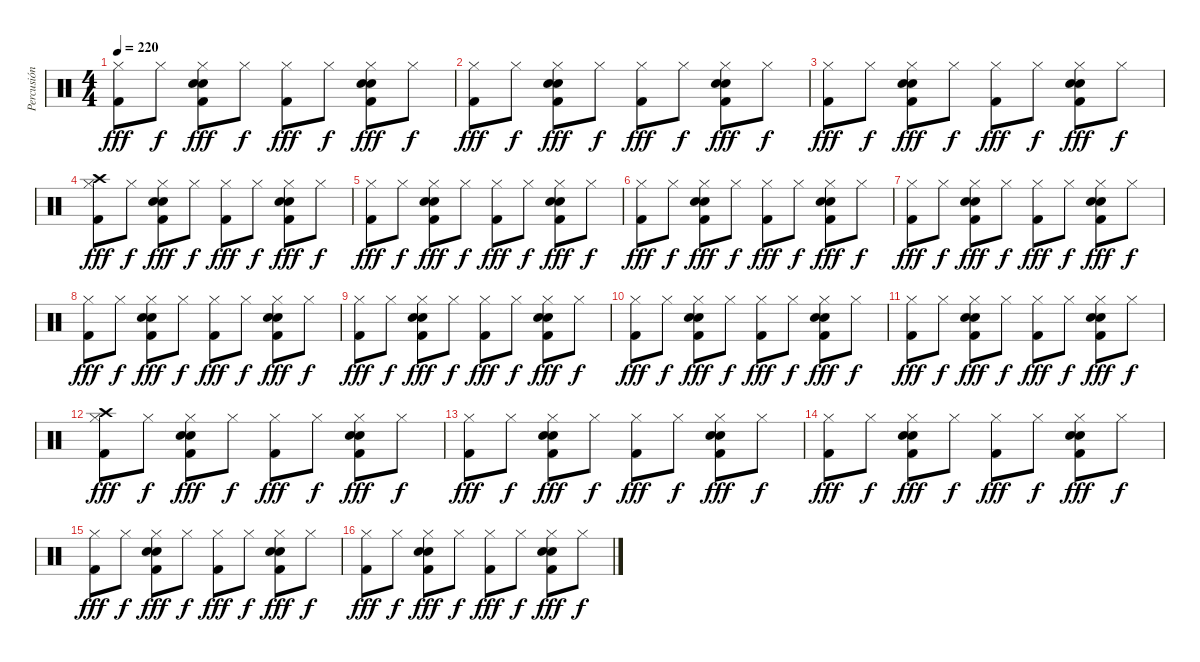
\track ("Percusión" "Percusión") {instrument percussion}
\staff {score}
\articulation defaults
\ts (4 4)
\tempo 220
\clef neutral
\ks c
("Hi-Hat (closed)" "Kick (hit) 2").8{dy fff} "Hi-Hat (closed)".8{dy f} ("Hi-Hat (closed)" "Electric Snare (hit)" "Snare (hit) 2" "Kick (hit) 2").8{dy fff} "Hi-Hat (closed)".8{dy f} ("Hi-Hat (closed)" "Kick (hit) 2").8{dy fff} "Hi-Hat (closed)".8{dy f} ("Hi-Hat (closed)" "Electric Snare (hit)" "Snare (hit) 2" "Kick (hit) 2").8{dy fff} "Hi-Hat (closed)".8{dy f} |
("Hi-Hat (closed)" "Kick (hit) 2").8{dy fff} "Hi-Hat (closed)".8{dy f} ("Hi-Hat (closed)" "Electric Snare (hit)" "Snare (hit) 2" "Kick (hit) 2").8{dy fff} "Hi-Hat (closed)".8{dy f} ("Hi-Hat (closed)" "Kick (hit) 2").8{dy fff} "Hi-Hat (closed)".8{dy f} ("Hi-Hat (closed)" "Electric Snare (hit)" "Snare (hit) 2" "Kick (hit) 2").8{dy fff} "Hi-Hat (closed)".8{dy f} |
("Hi-Hat (closed)" "Kick (hit) 2").8{dy fff} "Hi-Hat (closed)".8{dy f} ("Hi-Hat (closed)" "Electric Snare (hit)" "Snare (hit) 2" "Kick (hit) 2").8{dy fff} "Hi-Hat (closed)".8{dy f} ("Hi-Hat (closed)" "Kick (hit) 2").8{dy fff} "Hi-Hat (closed)".8{dy f} ("Hi-Hat (closed)" "Electric Snare (hit)" "Snare (hit) 2" "Kick (hit) 2").8{dy fff} "Hi-Hat (closed)".8{dy f} |
("Crash high (hit)" "Hi-Hat (closed)" "Kick (hit) 2").8{dy fff} "Hi-Hat (closed)".8{dy f} ("Hi-Hat (closed)" "Electric Snare (hit)" "Snare (hit) 2" "Kick (hit) 2").8{dy fff} "Hi-Hat (closed)".8{dy f} ("Hi-Hat (closed)" "Kick (hit) 2").8{dy fff} "Hi-Hat (closed)".8{dy f} ("Hi-Hat (closed)" "Electric Snare (hit)" "Snare (hit) 2" "Kick (hit) 2").8{dy fff} "Hi-Hat (closed)".8{dy f} |
("Hi-Hat (closed)" "Kick (hit) 2").8{dy fff} "Hi-Hat (closed)".8{dy f} ("Hi-Hat (closed)" "Electric Snare (hit)" "Snare (hit) 2" "Kick (hit) 2").8{dy fff} "Hi-Hat (closed)".8{dy f} ("Hi-Hat (closed)" "Kick (hit) 2").8{dy fff} "Hi-Hat (closed)".8{dy f} ("Hi-Hat (closed)" "Electric Snare (hit)" "Snare (hit) 2" "Kick (hit) 2").8{dy fff} "Hi-Hat (closed)".8{dy f} |
("Hi-Hat (closed)" "Kick (hit) 2").8{dy fff} "Hi-Hat (closed)".8{dy f} ("Hi-Hat (closed)" "Electric Snare (hit)" "Snare (hit) 2" "Kick (hit) 2").8{dy fff} "Hi-Hat (closed)".8{dy f} ("Hi-Hat (closed)" "Kick (hit) 2").8{dy fff} "Hi-Hat (closed)".8{dy f} ("Hi-Hat (closed)" "Electric Snare (hit)" "Snare (hit) 2" "Kick (hit) 2").8{dy fff} "Hi-Hat (closed)".8{dy f} |
("Hi-Hat (closed)" "Kick (hit) 2").8{dy fff} "Hi-Hat (closed)".8{dy f} ("Hi-Hat (closed)" "Electric Snare (hit)" "Snare (hit) 2" "Kick (hit) 2").8{dy fff} "Hi-Hat (closed)".8{dy f} ("Hi-Hat (closed)" "Kick (hit) 2").8{dy fff} "Hi-Hat (closed)".8{dy f} ("Hi-Hat (closed)" "Electric Snare (hit)" "Snare (hit) 2" "Kick (hit) 2").8{dy fff} "Hi-Hat (closed)".8{dy f} |
("Hi-Hat (closed)" "Kick (hit) 2").8{dy fff} "Hi-Hat (closed)".8{dy f} ("Hi-Hat (closed)" "Electric Snare (hit)" "Snare (hit) 2" "Kick (hit) 2").8{dy fff} "Hi-Hat (closed)".8{dy f} ("Hi-Hat (closed)" "Kick (hit) 2").8{dy fff} "Hi-Hat (closed)".8{dy f} ("Hi-Hat (closed)" "Electric Snare (hit)" "Snare (hit) 2" "Kick (hit) 2").8{dy fff} "Hi-Hat (closed)".8{dy f} |
("Hi-Hat (closed)" "Kick (hit) 2").8{dy fff} "Hi-Hat (closed)".8{dy f} ("Hi-Hat (closed)" "Electric Snare (hit)" "Snare (hit) 2" "Kick (hit) 2").8{dy fff} "Hi-Hat (closed)".8{dy f} ("Hi-Hat (closed)" "Kick (hit) 2").8{dy fff} "Hi-Hat (closed)".8{dy f} ("Hi-Hat (closed)" "Electric Snare (hit)" "Snare (hit) 2" "Kick (hit) 2").8{dy fff} "Hi-Hat (closed)".8{dy f} |
("Hi-Hat (closed)" "Kick (hit) 2").8{dy fff} "Hi-Hat (closed)".8{dy f} ("Hi-Hat (closed)" "Electric Snare (hit)" "Snare (hit) 2" "Kick (hit) 2").8{dy fff} "Hi-Hat (closed)".8{dy f} ("Hi-Hat (closed)" "Kick (hit) 2").8{dy fff} "Hi-Hat (closed)".8{dy f} ("Hi-Hat (closed)" "Electric Snare (hit)" "Snare (hit) 2" "Kick (hit) 2").8{dy fff} "Hi-Hat (closed)".8{dy f} |
("Hi-Hat (closed)" "Kick (hit) 2").8{dy fff} "Hi-Hat (closed)".8{dy f} ("Hi-Hat (closed)" "Electric Snare (hit)" "Snare (hit) 2" "Kick (hit) 2").8{dy fff} "Hi-Hat (closed)".8{dy f} ("Hi-Hat (closed)" "Kick (hit) 2").8{dy fff} "Hi-Hat (closed)".8{dy f} ("Hi-Hat (closed)" "Electric Snare (hit)" "Snare (hit) 2" "Kick (hit) 2").8{dy fff} "Hi-Hat (closed)".8{dy f} |
("Crash high (hit)" "Hi-Hat (closed)" "Kick (hit) 2").8{dy fff} "Hi-Hat (closed)".8{dy f} ("Hi-Hat (closed)" "Electric Snare (hit)" "Snare (hit) 2" "Kick (hit) 2").8{dy fff} "Hi-Hat (closed)".8{dy f} ("Hi-Hat (closed)" "Kick (hit) 2").8{dy fff} "Hi-Hat (closed)".8{dy f} ("Hi-Hat (closed)" "Electric Snare (hit)" "Snare (hit) 2" "Kick (hit) 2").8{dy fff} "Hi-Hat (closed)".8{dy f} |
("Hi-Hat (closed)" "Kick (hit) 2").8{dy fff} "Hi-Hat (closed)".8{dy f} ("Hi-Hat (closed)" "Electric Snare (hit)" "Snare (hit) 2" "Kick (hit) 2").8{dy fff} "Hi-Hat (closed)".8{dy f} ("Hi-Hat (closed)" "Kick (hit) 2").8{dy fff} "Hi-Hat (closed)".8{dy f} ("Hi-Hat (closed)" "Electric Snare (hit)" "Snare (hit) 2" "Kick (hit) 2").8{dy fff} "Hi-Hat (closed)".8{dy f} |
("Hi-Hat (closed)" "Kick (hit) 2").8{dy fff} "Hi-Hat (closed)".8{dy f} ("Hi-Hat (closed)" "Electric Snare (hit)" "Snare (hit) 2" "Kick (hit) 2").8{dy fff} "Hi-Hat (closed)".8{dy f} ("Hi-Hat (closed)" "Kick (hit) 2").8{dy fff} "Hi-Hat (closed)".8{dy f} ("Hi-Hat (closed)" "Electric Snare (hit)" "Snare (hit) 2" "Kick (hit) 2").8{dy fff} "Hi-Hat (closed)".8{dy f} |
("Hi-Hat (closed)" "Kick (hit) 2").8{dy fff} "Hi-Hat (closed)".8{dy f} ("Hi-Hat (closed)" "Electric Snare (hit)" "Snare (hit) 2" "Kick (hit) 2").8{dy fff} "Hi-Hat (closed)".8{dy f} ("Hi-Hat (closed)" "Kick (hit) 2").8{dy fff} "Hi-Hat (closed)".8{dy f} ("Hi-Hat (closed)" "Electric Snare (hit)" "Snare (hit) 2" "Kick (hit) 2").8{dy fff} "Hi-Hat (closed)".8{dy f} |
("Hi-Hat (closed)" "Kick (hit) 2").8{dy fff} "Hi-Hat (closed)".8{dy f} ("Hi-Hat (closed)" "Electric Snare (hit)" "Snare (hit) 2" "Kick (hit) 2").8{dy fff} "Hi-Hat (closed)".8{dy f} ("Hi-Hat (closed)" "Kick (hit) 2").8{dy fff} "Hi-Hat (closed)".8{dy f} ("Hi-Hat (closed)" "Electric Snare (hit)" "Snare (hit) 2" "Kick (hit) 2").8{dy fff} "Hi-Hat (closed)".8{dy f}
